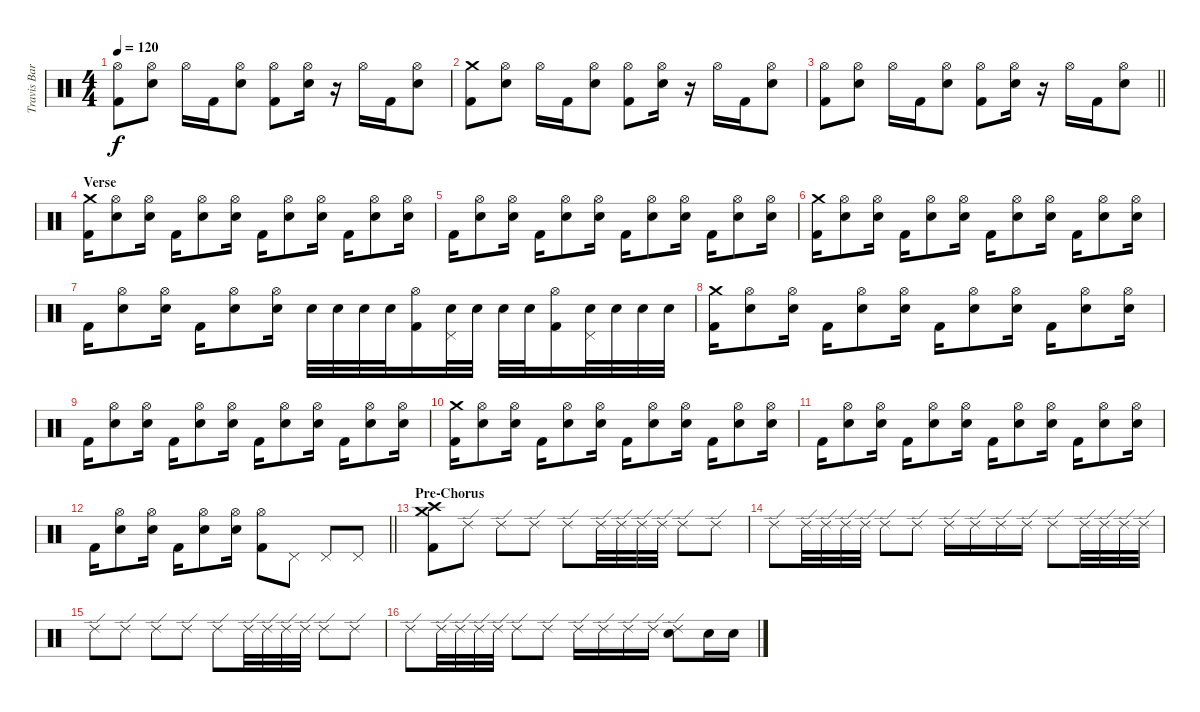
\track ("Travis Barker" "Travis Bar") {instrument percussion}
\staff {score}
\articulation defaults
\ts (4 4)
\tempo 120
\clef neutral
\ks c
("Hi-Hat (open)" "Kick (hit) 2").8{dy f} ("Hi-Hat (open)" "Electric Snare (hit)").8 "Hi-Hat (open)".16 "Kick (hit) 2".16 ("Hi-Hat (open)" "Electric Snare (hit)").8 ("Hi-Hat (open)" "Kick (hit) 2").8 ("Hi-Hat (open)" "Electric Snare (hit)").16 r.16 "Hi-Hat (open)".16 "Kick (hit) 2".16 ("Hi-Hat (open)" "Electric Snare (hit)").8 |
("Crash medium (hit)" "Kick (hit) 2").8 ("Hi-Hat (open)" "Electric Snare (hit)").8 "Hi-Hat (open)".16 "Kick (hit) 2".16 ("Hi-Hat (open)" "Electric Snare (hit)").8 ("Hi-Hat (open)" "Kick (hit) 2").8 ("Hi-Hat (open)" "Electric Snare (hit)").16 r.16 "Hi-Hat (open)".16 "Kick (hit) 2".16 ("Hi-Hat (open)" "Electric Snare (hit)").8 |
\barLineRight lightlight
("Hi-Hat (open)" "Kick (hit) 2").8 ("Hi-Hat (open)" "Electric Snare (hit)").8 "Hi-Hat (open)".16 "Kick (hit) 2".16 ("Hi-Hat (open)" "Electric Snare (hit)").8 ("Hi-Hat (open)" "Kick (hit) 2").8 ("Hi-Hat (open)" "Electric Snare (hit)").16 r.16 "Hi-Hat (open)".16 "Kick (hit) 2".16 ("Hi-Hat (open)" "Electric Snare (hit)").8 |
\section ("" "Verse")
("Crash medium (hit)" "Kick (hit) 2").16 ("Hi-Hat (open)" "Electric Snare (hit)").8 ("Hi-Hat (open)" "Electric Snare (hit)").16 "Kick (hit) 2".16 ("Hi-Hat (open)" "Electric Snare (hit)").8 ("Hi-Hat (open)" "Electric Snare (hit)").16 "Kick (hit) 2".16 ("Hi-Hat (open)" "Electric Snare (hit)").8 ("Hi-Hat (open)" "Electric Snare (hit)").16 "Kick (hit) 2".16 ("Hi-Hat (open)" "Electric Snare (hit)").8 ("Hi-Hat (open)" "Electric Snare (hit)").16 |
"Kick (hit) 2".16 ("Hi-Hat (open)" "Electric Snare (hit)").8 ("Hi-Hat (open)" "Electric Snare (hit)").16 "Kick (hit) 2".16 ("Hi-Hat (open)" "Electric Snare (hit)").8 ("Hi-Hat (open)" "Electric Snare (hit)").16 "Kick (hit) 2".16 ("Hi-Hat (open)" "Electric Snare (hit)").8 ("Hi-Hat (open)" "Electric Snare (hit)").16 "Kick (hit) 2".16 ("Hi-Hat (open)" "Electric Snare (hit)").8 ("Hi-Hat (open)" "Electric Snare (hit)").16 |
("Crash medium (hit)" "Kick (hit) 2").16 ("Hi-Hat (open)" "Electric Snare (hit)").8 ("Hi-Hat (open)" "Electric Snare (hit)").16 "Kick (hit) 2".16 ("Hi-Hat (open)" "Electric Snare (hit)").8 ("Hi-Hat (open)" "Electric Snare (hit)").16 "Kick (hit) 2".16 ("Hi-Hat (open)" "Electric Snare (hit)").8 ("Hi-Hat (open)" "Electric Snare (hit)").16 "Kick (hit) 2".16 ("Hi-Hat (open)" "Electric Snare (hit)").8 ("Hi-Hat (open)" "Electric Snare (hit)").16 |
"Kick (hit) 2".16 ("Hi-Hat (open)" "Electric Snare (hit)").8 ("Hi-Hat (open)" "Electric Snare (hit)").16 "Kick (hit) 2".16 ("Hi-Hat (open)" "Electric Snare (hit)").8 ("Hi-Hat (open)" "Electric Snare (hit)").16 "Electric Snare (hit)".32 "Electric Snare (hit)".32 "Electric Snare (hit)".32 "Electric Snare (hit)".32 ("Hi-Hat (open)" "Kick (hit) 2").16 ("Pedal Hi-Hat (hit)" "Electric Snare (hit)").32 "Electric Snare (hit)".32 "Electric Snare (hit)".32 "Electric Snare (hit)".32 ("Hi-Hat (open)" "Kick (hit) 2").16 ("Pedal Hi-Hat (hit)" "Electric Snare (hit)").32 "Electric Snare (hit)".32 "Electric Snare (hit)".32 "Electric Snare (hit)".32 |
("Crash medium (hit)" "Kick (hit) 2").16 ("Hi-Hat (open)" "Electric Snare (hit)").8 ("Hi-Hat (open)" "Electric Snare (hit)").16 "Kick (hit) 2".16 ("Hi-Hat (open)" "Electric Snare (hit)").8 ("Hi-Hat (open)" "Electric Snare (hit)").16 "Kick (hit) 2".16 ("Hi-Hat (open)" "Electric Snare (hit)").8 ("Hi-Hat (open)" "Electric Snare (hit)").16 "Kick (hit) 2".16 ("Hi-Hat (open)" "Electric Snare (hit)").8 ("Hi-Hat (open)" "Electric Snare (hit)").16 |
"Kick (hit) 2".16 ("Hi-Hat (open)" "Electric Snare (hit)").8 ("Hi-Hat (open)" "Electric Snare (hit)").16 "Kick (hit) 2".16 ("Hi-Hat (open)" "Electric Snare (hit)").8 ("Hi-Hat (open)" "Electric Snare (hit)").16 "Kick (hit) 2".16 ("Hi-Hat (open)" "Electric Snare (hit)").8 ("Hi-Hat (open)" "Electric Snare (hit)").16 "Kick (hit) 2".16 ("Hi-Hat (open)" "Electric Snare (hit)").8 ("Hi-Hat (open)" "Electric Snare (hit)").16 |
("Crash medium (hit)" "Kick (hit) 2").16 ("Hi-Hat (open)" "Electric Snare (hit)").8 ("Hi-Hat (open)" "Electric Snare (hit)").16 "Kick (hit) 2".16 ("Hi-Hat (open)" "Electric Snare (hit)").8 ("Hi-Hat (open)" "Electric Snare (hit)").16 "Kick (hit) 2".16 ("Hi-Hat (open)" "Electric Snare (hit)").8 ("Hi-Hat (open)" "Electric Snare (hit)").16 "Kick (hit) 2".16 ("Hi-Hat (open)" "Electric Snare (hit)").8 ("Hi-Hat (open)" "Electric Snare (hit)").16 |
"Kick (hit) 2".16 ("Hi-Hat (open)" "Electric Snare (hit)").8 ("Hi-Hat (open)" "Electric Snare (hit)").16 "Kick (hit) 2".16 ("Hi-Hat (open)" "Electric Snare (hit)").8 ("Hi-Hat (open)" "Electric Snare (hit)").16 "Kick (hit) 2".16 ("Hi-Hat (open)" "Electric Snare (hit)").8 ("Hi-Hat (open)" "Electric Snare (hit)").16 "Kick (hit) 2".16 ("Hi-Hat (open)" "Electric Snare (hit)").8 ("Hi-Hat (open)" "Electric Snare (hit)").16 |
\barLineRight lightlight "Kick (hit) 2".16
("Hi-Hat (open)" "Electric Snare (hit)").8 ("Hi-Hat (open)" "Electric Snare (hit)").16 "Kick (hit) 2".16 ("Hi-Hat (open)" "Electric Snare (hit)").8 ("Hi-Hat (open)" "Electric Snare (hit)").16 ("Hi-Hat (open)" "Kick (hit) 2").8 "Pedal Hi-Hat (hit)".8 "Pedal Hi-Hat (hit)".8 "Pedal Hi-Hat (hit)".8 |
\section ("" "Pre-Chorus")
("Crash medium (hit)" "Crash high (hit)" "Kick (hit) 2").8 "Ride (edge) 2".8 "Ride (edge) 2".8 "Ride (edge) 2".8 "Ride (edge) 2".8 "Ride (edge) 2".32 "Ride (edge) 2".32 "Ride (edge) 2".32 "Ride (edge) 2".32 "Ride (edge) 2".8 "Ride (edge) 2".8 |
"Ride (edge) 2".8 "Ride (edge) 2".32 "Ride (edge) 2".32 "Ride (edge) 2".32 "Ride (edge) 2".32 "Ride (edge) 2".8 "Ride (edge) 2".8 "Ride (edge) 2".16 "Ride (edge) 2".16 "Ride (edge) 2".16 "Ride (edge) 2".16 "Ride (edge) 2".8 "Ride (edge) 2".32 "Ride (edge) 2".32 "Ride (edge) 2".32 "Ride (edge) 2".32 |
"Ride (edge) 2".8 "Ride (edge) 2".8 "Ride (edge) 2".8 "Ride (edge) 2".8 "Ride (edge) 2".8 "Ride (edge) 2".32 "Ride (edge) 2".32 "Ride (edge) 2".32 "Ride (edge) 2".32 "Ride (edge) 2".8 "Ride (edge) 2".8 |
"Ride (edge) 2".8 "Ride (edge) 2".32 "Ride (edge) 2".32 "Ride (edge) 2".32 "Ride (edge) 2".32 "Ride (edge) 2".8 "Ride (edge) 2".8 "Ride (edge) 2".16 "Ride (edge) 2".16 "Ride (edge) 2".16 "Ride (edge) 2".16 ("Ride (edge) 2" "Electric Snare (hit)").8 "Electric Snare (hit)".16 "Electric Snare (hit)".16
